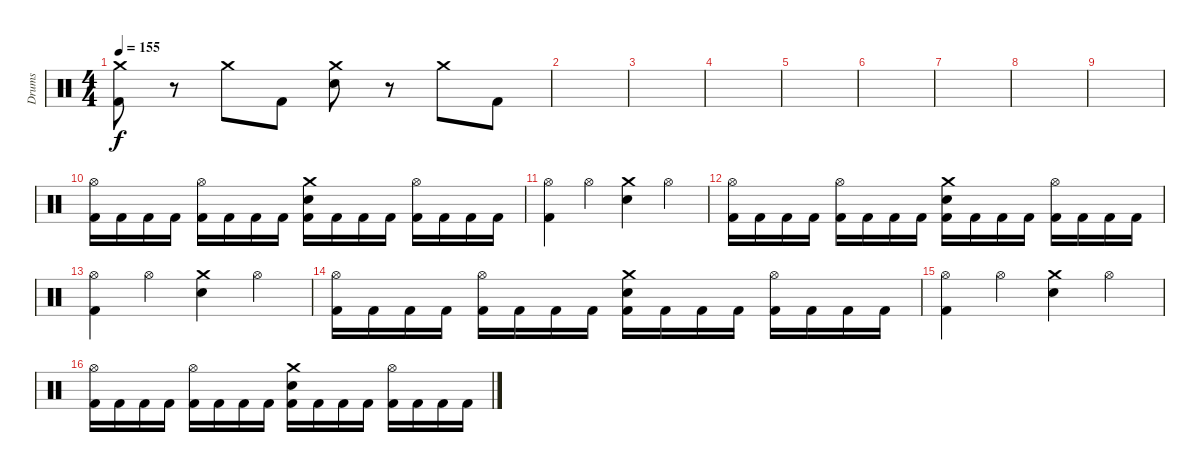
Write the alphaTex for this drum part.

\track ("Drums" "Drums") {instrument percussion}
\staff {score}
\articulation defaults
\ts (4 4)
\tempo 155
\clef neutral
\ks c
("Crash medium (hit)" "Kick (hit) 2").8{dy f} r.8 "Crash medium (hit)".8 "Kick (hit) 2".8 ("Snare (hit) 2" "Crash medium (hit)").8 r.8 "Crash medium (hit)".8 "Kick (hit) 2".8 |
|
|
|
|
|
|
|
|
("Hi-Hat (open)" "Kick (hit) 2").16 "Kick (hit) 2".16 "Kick (hit) 2".16 "Kick (hit) 2".16 ("Hi-Hat (open)" "Kick (hit) 2").16 "Kick (hit) 2".16 "Kick (hit) 2".16 "Kick (hit) 2".16 ("Snare (hit) 2" "Crash medium (hit)" "Kick (hit) 2").16 "Kick (hit) 2".16 "Kick (hit) 2".16 "Kick (hit) 2".16 ("Hi-Hat (open)" "Kick (hit) 2").16 "Kick (hit) 2".16 "Kick (hit) 2".16 "Kick (hit) 2".16 |
("Hi-Hat (open)" "Kick (hit) 2").4 "Hi-Hat (open)".4 ("Snare (hit) 2" "Crash medium (hit)").4 "Hi-Hat (open)".4 |
("Hi-Hat (open)" "Kick (hit) 2").16 "Kick (hit) 2".16 "Kick (hit) 2".16 "Kick (hit) 2".16 ("Hi-Hat (open)" "Kick (hit) 2").16 "Kick (hit) 2".16 "Kick (hit) 2".16 "Kick (hit) 2".16 ("Snare (hit) 2" "Crash medium (hit)" "Kick (hit) 2").16 "Kick (hit) 2".16 "Kick (hit) 2".16 "Kick (hit) 2".16 ("Hi-Hat (open)" "Kick (hit) 2").16 "Kick (hit) 2".16 "Kick (hit) 2".16 "Kick (hit) 2".16 |
("Hi-Hat (open)" "Kick (hit) 2").4 "Hi-Hat (open)".4 ("Snare (hit) 2" "Crash medium (hit)").4 "Hi-Hat (open)".4 |
("Hi-Hat (open)" "Kick (hit) 2").16 "Kick (hit) 2".16 "Kick (hit) 2".16 "Kick (hit) 2".16 ("Hi-Hat (open)" "Kick (hit) 2").16 "Kick (hit) 2".16 "Kick (hit) 2".16 "Kick (hit) 2".16 ("Snare (hit) 2" "Crash medium (hit)" "Kick (hit) 2").16 "Kick (hit) 2".16 "Kick (hit) 2".16 "Kick (hit) 2".16 ("Hi-Hat (open)" "Kick (hit) 2").16 "Kick (hit) 2".16 "Kick (hit) 2".16 "Kick (hit) 2".16 |
("Hi-Hat (open)" "Kick (hit) 2").4 "Hi-Hat (open)".4 ("Snare (hit) 2" "Crash medium (hit)").4 "Hi-Hat (open)".4 |
("Hi-Hat (open)" "Kick (hit) 2").16 "Kick (hit) 2".16 "Kick (hit) 2".16 "Kick (hit) 2".16 ("Hi-Hat (open)" "Kick (hit) 2").16 "Kick (hit) 2".16 "Kick (hit) 2".16 "Kick (hit) 2".16 ("Snare (hit) 2" "Crash medium (hit)" "Kick (hit) 2").16 "Kick (hit) 2".16 "Kick (hit) 2".16 "Kick (hit) 2".16 ("Hi-Hat (open)" "Kick (hit) 2").16 "Kick (hit) 2".16 "Kick (hit) 2".16 "Kick (hit) 2".16
